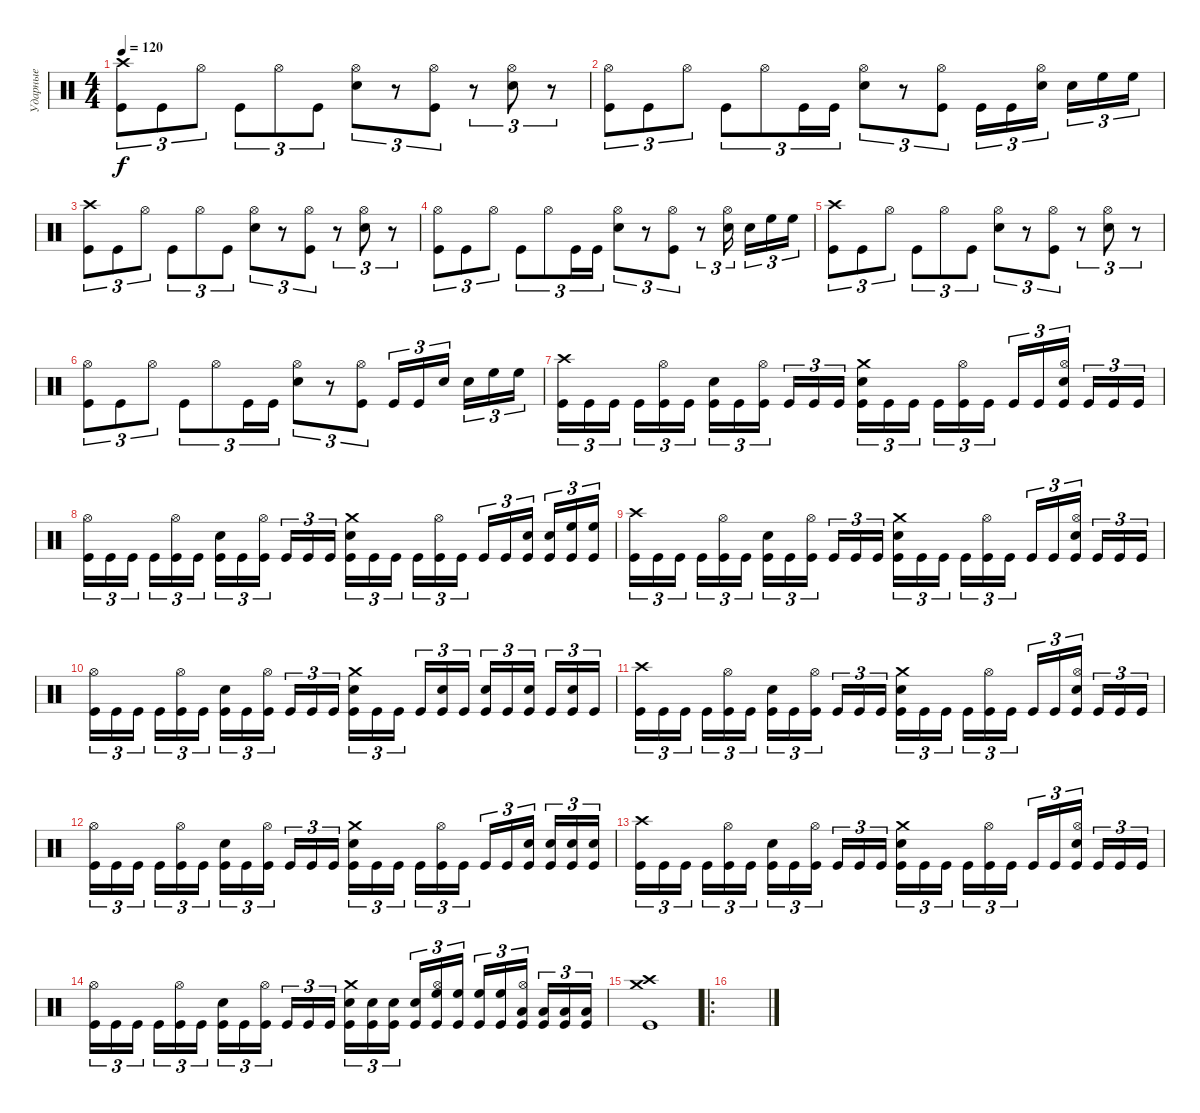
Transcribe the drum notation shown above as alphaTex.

\track ("Ударные" "Ударные") {instrument percussion}
\staff {score}
\articulation defaults
\ts (4 4)
\tempo 120
\clef neutral
\ks c
("Crash high (hit)" "Kick (hit)").8{tu (3 2) dy f} "Kick (hit)".8{tu (3 2)} "Hi-Hat (open)".8{tu (3 2)} "Kick (hit)".8{tu (3 2)} "Hi-Hat (open)".8{tu (3 2)} "Kick (hit)".8{tu (3 2)} ("Hi-Hat (open)" "Snare (hit) 2").8{tu (3 2)} r.8{tu (3 2)} ("Hi-Hat (open)" "Kick (hit)").8{tu (3 2)} r.8{tu (3 2)} ("Hi-Hat (open)" "Snare (hit) 2").8{tu (3 2)} r.8{tu (3 2)} |
("Hi-Hat (open)" "Kick (hit)").8{tu (3 2)} "Kick (hit)".8{tu (3 2)} "Hi-Hat (open)".8{tu (3 2)} "Kick (hit)".8{tu (3 2)} "Hi-Hat (open)".8{tu (3 2)} "Kick (hit)".16{tu (3 2)} "Kick (hit)".16{tu (3 2)} ("Hi-Hat (open)" "Snare (hit) 2").8{tu (3 2)} r.8{tu (3 2)} ("Hi-Hat (open)" "Kick (hit)").8{tu (3 2)} "Kick (hit)".16{tu (3 2)} "Kick (hit)".16{tu (3 2)} ("Hi-Hat (open)" "Snare (hit) 2").16{tu (3 2) beam splitsecondary} "Snare (hit) 2".16{tu (3 2)} "High Floor Tom (hit)".16{tu (3 2)} "High Floor Tom (hit)".16{tu (3 2)} |
("Crash high (hit)" "Kick (hit)").8{tu (3 2)} "Kick (hit)".8{tu (3 2)} "Hi-Hat (open)".8{tu (3 2)} "Kick (hit)".8{tu (3 2)} "Hi-Hat (open)".8{tu (3 2)} "Kick (hit)".8{tu (3 2)} ("Hi-Hat (open)" "Snare (hit) 2").8{tu (3 2)} r.8{tu (3 2)} ("Hi-Hat (open)" "Kick (hit)").8{tu (3 2)} r.8{tu (3 2)} ("Hi-Hat (open)" "Snare (hit) 2").8{tu (3 2)} r.8{tu (3 2)} |
("Hi-Hat (open)" "Kick (hit)").8{tu (3 2)} "Kick (hit)".8{tu (3 2)} "Hi-Hat (open)".8{tu (3 2)} "Kick (hit)".8{tu (3 2)} "Hi-Hat (open)".8{tu (3 2)} "Kick (hit)".16{tu (3 2)} "Kick (hit)".16{tu (3 2)} ("Hi-Hat (open)" "Snare (hit) 2").8{tu (3 2)} r.8{tu (3 2)} ("Hi-Hat (open)" "Kick (hit)").8{tu (3 2)} r.8{tu (3 2)} ("Hi-Hat (open)" "Snare (hit) 2").16{tu (3 2) beam splitsecondary} "Snare (hit) 2".16{tu (3 2)} "High Floor Tom (hit)".16{tu (3 2)} "High Floor Tom (hit)".16{tu (3 2)} |
("Crash high (hit)" "Kick (hit)").8{tu (3 2)} "Kick (hit)".8{tu (3 2)} "Hi-Hat (open)".8{tu (3 2)} "Kick (hit)".8{tu (3 2)} "Hi-Hat (open)".8{tu (3 2)} "Kick (hit)".8{tu (3 2)} ("Hi-Hat (open)" "Snare (hit) 2").8{tu (3 2)} r.8{tu (3 2)} ("Hi-Hat (open)" "Kick (hit)").8{tu (3 2)} r.8{tu (3 2)} ("Hi-Hat (open)" "Snare (hit) 2").8{tu (3 2)} r.8{tu (3 2)} |
("Hi-Hat (open)" "Kick (hit)").8{tu (3 2)} "Kick (hit)".8{tu (3 2)} "Hi-Hat (open)".8{tu (3 2)} "Kick (hit)".8{tu (3 2)} "Hi-Hat (open)".8{tu (3 2)} "Kick (hit)".16{tu (3 2)} "Kick (hit)".16{tu (3 2)} ("Hi-Hat (open)" "Snare (hit) 2").8{tu (3 2)} r.8{tu (3 2)} ("Hi-Hat (open)" "Kick (hit)").8{tu (3 2)} "Kick (hit)".16{tu (3 2)} "Kick (hit)".16{tu (3 2)} "Snare (hit) 2".16{tu (3 2) beam splitsecondary} "Snare (hit) 2".16{tu (3 2)} "High Floor Tom (hit)".16{tu (3 2)} "High Floor Tom (hit)".16{tu (3 2)} |
("Crash high (hit)" "Kick (hit)").16{tu (3 2)} "Kick (hit)".16{tu (3 2)} "Kick (hit)".16{tu (3 2) beam splitsecondary} "Kick (hit)".16{tu (3 2)} ("Hi-Hat (open)" "Kick (hit)").16{tu (3 2)} "Kick (hit)".16{tu (3 2)} ("Snare (hit) 2" "Kick (hit)").16{tu (3 2)} "Kick (hit)".16{tu (3 2)} ("Hi-Hat (open)" "Kick (hit)").16{tu (3 2) beam splitsecondary} "Kick (hit)".16{tu (3 2)} "Kick (hit)".16{tu (3 2)} "Kick (hit)".16{tu (3 2)} ("Crash medium (hit)" "Snare (hit) 2" "Kick (hit)").16{tu (3 2)} "Kick (hit)".16{tu (3 2)} "Kick (hit)".16{tu (3 2) beam splitsecondary} "Kick (hit)".16{tu (3 2)} ("Hi-Hat (open)" "Kick (hit)").16{tu (3 2)} "Kick (hit)".16{tu (3 2)} "Kick (hit)".16{tu (3 2)} "Kick (hit)".16{tu (3 2)} ("Hi-Hat (open)" "Snare (hit) 2" "Kick (hit)").16{tu (3 2) beam splitsecondary} "Kick (hit)".16{tu (3 2)} "Kick (hit)".16{tu (3 2)} "Kick (hit)".16{tu (3 2)} |
("Hi-Hat (open)" "Kick (hit)").16{tu (3 2)} "Kick (hit)".16{tu (3 2)} "Kick (hit)".16{tu (3 2) beam splitsecondary} "Kick (hit)".16{tu (3 2)} ("Hi-Hat (open)" "Kick (hit)").16{tu (3 2)} "Kick (hit)".16{tu (3 2)} ("Snare (hit) 2" "Kick (hit)").16{tu (3 2)} "Kick (hit)".16{tu (3 2)} ("Hi-Hat (open)" "Kick (hit)").16{tu (3 2) beam splitsecondary} "Kick (hit)".16{tu (3 2)} "Kick (hit)".16{tu (3 2)} "Kick (hit)".16{tu (3 2)} ("Crash medium (hit)" "Snare (hit) 2" "Kick (hit)").16{tu (3 2)} "Kick (hit)".16{tu (3 2)} "Kick (hit)".16{tu (3 2) beam splitsecondary} "Kick (hit)".16{tu (3 2)} ("Hi-Hat (open)" "Kick (hit)").16{tu (3 2)} "Kick (hit)".16{tu (3 2)} "Kick (hit)".16{tu (3 2)} "Kick (hit)".16{tu (3 2)} ("Snare (hit) 2" "Kick (hit)").16{tu (3 2) beam splitsecondary} ("Snare (hit) 2" "Kick (hit)").16{tu (3 2)} ("High Floor Tom (hit)" "Kick (hit)").16{tu (3 2)} ("High Floor Tom (hit)" "Kick (hit)").16{tu (3 2)} |
("Crash high (hit)" "Kick (hit)").16{tu (3 2)} "Kick (hit)".16{tu (3 2)} "Kick (hit)".16{tu (3 2) beam splitsecondary} "Kick (hit)".16{tu (3 2)} ("Hi-Hat (open)" "Kick (hit)").16{tu (3 2)} "Kick (hit)".16{tu (3 2)} ("Snare (hit) 2" "Kick (hit)").16{tu (3 2)} "Kick (hit)".16{tu (3 2)} ("Hi-Hat (open)" "Kick (hit)").16{tu (3 2) beam splitsecondary} "Kick (hit)".16{tu (3 2)} "Kick (hit)".16{tu (3 2)} "Kick (hit)".16{tu (3 2)} ("Crash medium (hit)" "Snare (hit) 2" "Kick (hit)").16{tu (3 2)} "Kick (hit)".16{tu (3 2)} "Kick (hit)".16{tu (3 2) beam splitsecondary} "Kick (hit)".16{tu (3 2)} ("Hi-Hat (open)" "Kick (hit)").16{tu (3 2)} "Kick (hit)".16{tu (3 2)} "Kick (hit)".16{tu (3 2)} "Kick (hit)".16{tu (3 2)} ("Hi-Hat (open)" "Snare (hit) 2" "Kick (hit)").16{tu (3 2) beam splitsecondary} "Kick (hit)".16{tu (3 2)} "Kick (hit)".16{tu (3 2)} "Kick (hit)".16{tu (3 2)} |
("Hi-Hat (open)" "Kick (hit)").16{tu (3 2)} "Kick (hit)".16{tu (3 2)} "Kick (hit)".16{tu (3 2) beam splitsecondary} "Kick (hit)".16{tu (3 2)} ("Hi-Hat (open)" "Kick (hit)").16{tu (3 2)} "Kick (hit)".16{tu (3 2)} ("Snare (hit) 2" "Kick (hit)").16{tu (3 2)} "Kick (hit)".16{tu (3 2)} ("Hi-Hat (open)" "Kick (hit)").16{tu (3 2) beam splitsecondary} "Kick (hit)".16{tu (3 2)} "Kick (hit)".16{tu (3 2)} "Kick (hit)".16{tu (3 2)} ("Crash medium (hit)" "Snare (hit) 2" "Kick (hit)").16{tu (3 2)} "Kick (hit)".16{tu (3 2)} "Kick (hit)".16{tu (3 2) beam splitsecondary} "Kick (hit)".16{tu (3 2)} ("Snare (hit) 2" "Kick (hit)").16{tu (3 2)} "Kick (hit)".16{tu (3 2)} ("Snare (hit) 2" "Kick (hit)").16{tu (3 2)} "Kick (hit)".16{tu (3 2)} ("Snare (hit) 2" "Kick (hit)").16{tu (3 2) beam splitsecondary} "Kick (hit)".16{tu (3 2)} ("Snare (hit) 2" "Kick (hit)").16{tu (3 2)} "Kick (hit)".16{tu (3 2)} |
("Crash high (hit)" "Kick (hit)").16{tu (3 2)} "Kick (hit)".16{tu (3 2)} "Kick (hit)".16{tu (3 2) beam splitsecondary} "Kick (hit)".16{tu (3 2)} ("Hi-Hat (open)" "Kick (hit)").16{tu (3 2)} "Kick (hit)".16{tu (3 2)} ("Snare (hit) 2" "Kick (hit)").16{tu (3 2)} "Kick (hit)".16{tu (3 2)} ("Hi-Hat (open)" "Kick (hit)").16{tu (3 2) beam splitsecondary} "Kick (hit)".16{tu (3 2)} "Kick (hit)".16{tu (3 2)} "Kick (hit)".16{tu (3 2)} ("Crash medium (hit)" "Snare (hit) 2" "Kick (hit)").16{tu (3 2)} "Kick (hit)".16{tu (3 2)} "Kick (hit)".16{tu (3 2) beam splitsecondary} "Kick (hit)".16{tu (3 2)} ("Hi-Hat (open)" "Kick (hit)").16{tu (3 2)} "Kick (hit)".16{tu (3 2)} "Kick (hit)".16{tu (3 2)} "Kick (hit)".16{tu (3 2)} ("Hi-Hat (open)" "Snare (hit) 2" "Kick (hit)").16{tu (3 2) beam splitsecondary} "Kick (hit)".16{tu (3 2)} "Kick (hit)".16{tu (3 2)} "Kick (hit)".16{tu (3 2)} |
("Hi-Hat (open)" "Kick (hit)").16{tu (3 2)} "Kick (hit)".16{tu (3 2)} "Kick (hit)".16{tu (3 2) beam splitsecondary} "Kick (hit)".16{tu (3 2)} ("Hi-Hat (open)" "Kick (hit)").16{tu (3 2)} "Kick (hit)".16{tu (3 2)} ("Snare (hit) 2" "Kick (hit)").16{tu (3 2)} "Kick (hit)".16{tu (3 2)} ("Hi-Hat (open)" "Kick (hit)").16{tu (3 2) beam splitsecondary} "Kick (hit)".16{tu (3 2)} "Kick (hit)".16{tu (3 2)} "Kick (hit)".16{tu (3 2)} ("Crash medium (hit)" "Snare (hit) 2" "Kick (hit)").16{tu (3 2)} "Kick (hit)".16{tu (3 2)} "Kick (hit)".16{tu (3 2) beam splitsecondary} "Kick (hit)".16{tu (3 2)} ("Hi-Hat (open)" "Kick (hit)").16{tu (3 2)} "Kick (hit)".16{tu (3 2)} "Kick (hit)".16{tu (3 2)} "Kick (hit)".16{tu (3 2)} ("Snare (hit) 2" "Kick (hit)").16{tu (3 2) beam splitsecondary} ("Snare (hit) 2" "Kick (hit)").16{tu (3 2)} ("Snare (hit) 2" "Kick (hit)").16{tu (3 2)} ("Snare (hit) 2" "Kick (hit)").16{tu (3 2)} |
("Crash high (hit)" "Kick (hit)").16{tu (3 2)} "Kick (hit)".16{tu (3 2)} "Kick (hit)".16{tu (3 2) beam splitsecondary} "Kick (hit)".16{tu (3 2)} ("Hi-Hat (open)" "Kick (hit)").16{tu (3 2)} "Kick (hit)".16{tu (3 2)} ("Snare (hit) 2" "Kick (hit)").16{tu (3 2)} "Kick (hit)".16{tu (3 2)} ("Hi-Hat (open)" "Kick (hit)").16{tu (3 2) beam splitsecondary} "Kick (hit)".16{tu (3 2)} "Kick (hit)".16{tu (3 2)} "Kick (hit)".16{tu (3 2)} ("Crash medium (hit)" "Snare (hit) 2" "Kick (hit)").16{tu (3 2)} "Kick (hit)".16{tu (3 2)} "Kick (hit)".16{tu (3 2) beam splitsecondary} "Kick (hit)".16{tu (3 2)} ("Hi-Hat (open)" "Kick (hit)").16{tu (3 2)} "Kick (hit)".16{tu (3 2)} "Kick (hit)".16{tu (3 2)} "Kick (hit)".16{tu (3 2)} ("Hi-Hat (open)" "Snare (hit) 2" "Kick (hit)").16{tu (3 2) beam splitsecondary} "Kick (hit)".16{tu (3 2)} "Kick (hit)".16{tu (3 2)} "Kick (hit)".16{tu (3 2)} |
("Hi-Hat (open)" "Kick (hit)").16{tu (3 2)} "Kick (hit)".16{tu (3 2)} "Kick (hit)".16{tu (3 2) beam splitsecondary} "Kick (hit)".16{tu (3 2)} ("Hi-Hat (open)" "Kick (hit)").16{tu (3 2)} "Kick (hit)".16{tu (3 2)} ("Snare (hit) 2" "Kick (hit)").16{tu (3 2)} "Kick (hit)".16{tu (3 2)} ("Hi-Hat (open)" "Kick (hit)").16{tu (3 2) beam splitsecondary} "Kick (hit)".16{tu (3 2)} "Kick (hit)".16{tu (3 2)} "Kick (hit)".16{tu (3 2)} ("Crash medium (hit)" "Snare (hit) 2" "Kick (hit)").16{tu (3 2)} ("Snare (hit) 2" "Kick (hit)").16{tu (3 2)} ("Snare (hit) 2" "Kick (hit)").16{tu (3 2) beam splitsecondary} ("Snare (hit) 2" "Kick (hit)").16{tu (3 2)} ("Hi-Hat (open)" "High Floor Tom (hit)" "Kick (hit)").16{tu (3 2)} ("High Floor Tom (hit)" "Kick (hit)").16{tu (3 2)} ("High Floor Tom (hit)" "Kick (hit)").16{tu (3 2)} ("High Floor Tom (hit)" "Kick (hit)").16{tu (3 2)} ("Hi-Hat (open)" "Low Tom (hit)" "Kick (hit)").16{tu (3 2) beam splitsecondary} ("Low Tom (hit)" "Kick (hit)").16{tu (3 2)} ("Low Tom (hit)" "Kick (hit)").16{tu (3 2)} ("Low Tom (hit)" "Kick (hit)").16{tu (3 2)} |
("Crash medium (hit)" "Crash high (hit)" "Kick (hit)").1 |
\ro
